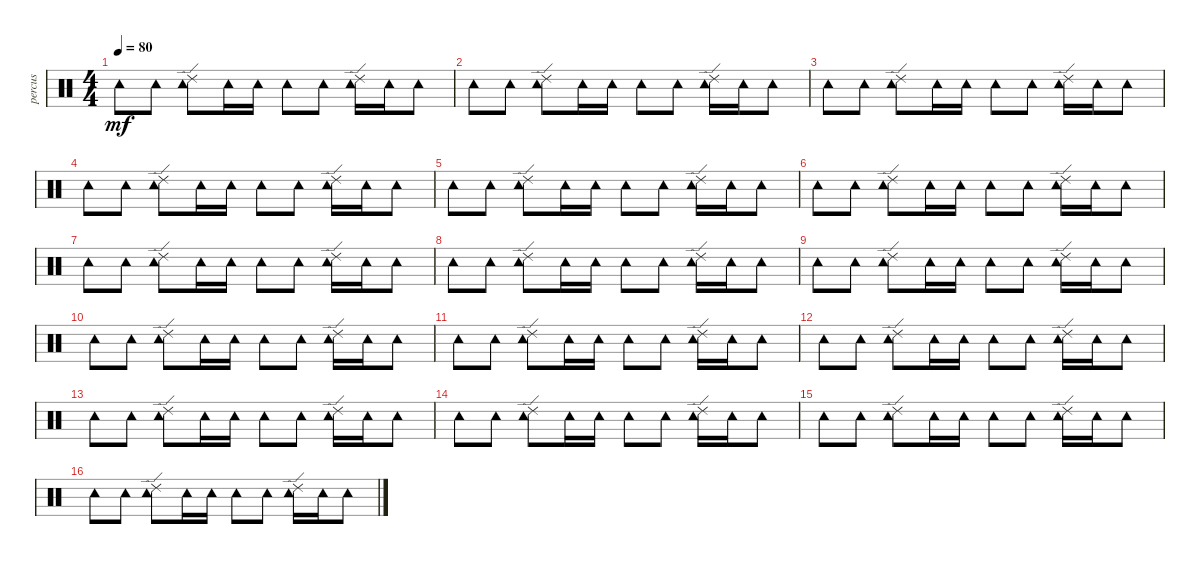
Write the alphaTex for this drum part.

\track ("percus" "percus") {instrument percussion}
\staff {score}
\articulation defaults
\ts (4 4)
\tempo 80
\clef neutral
\ks c "Tambourine (hit)".8{dy mf} "Tambourine (hit)".8
("Tambourine (hit)" "Ride (edge) 2").8 "Tambourine (hit)".16 "Tambourine (hit)".16 "Tambourine (hit)".8 "Tambourine (hit)".8 ("Tambourine (hit)" "Ride (edge) 2").16 "Tambourine (hit)".16 "Tambourine (hit)".8 |
"Tambourine (hit)".8 "Tambourine (hit)".8 ("Tambourine (hit)" "Ride (edge) 2").8 "Tambourine (hit)".16 "Tambourine (hit)".16 "Tambourine (hit)".8 "Tambourine (hit)".8 ("Tambourine (hit)" "Ride (edge) 2").16 "Tambourine (hit)".16 "Tambourine (hit)".8 |
"Tambourine (hit)".8 "Tambourine (hit)".8 ("Tambourine (hit)" "Ride (edge) 2").8 "Tambourine (hit)".16 "Tambourine (hit)".16 "Tambourine (hit)".8 "Tambourine (hit)".8 ("Tambourine (hit)" "Ride (edge) 2").16 "Tambourine (hit)".16 "Tambourine (hit)".8 |
"Tambourine (hit)".8 "Tambourine (hit)".8 ("Tambourine (hit)" "Ride (edge) 2").8 "Tambourine (hit)".16 "Tambourine (hit)".16 "Tambourine (hit)".8 "Tambourine (hit)".8 ("Tambourine (hit)" "Ride (edge) 2").16 "Tambourine (hit)".16 "Tambourine (hit)".8 |
"Tambourine (hit)".8 "Tambourine (hit)".8 ("Tambourine (hit)" "Ride (edge) 2").8 "Tambourine (hit)".16 "Tambourine (hit)".16 "Tambourine (hit)".8 "Tambourine (hit)".8 ("Tambourine (hit)" "Ride (edge) 2").16 "Tambourine (hit)".16 "Tambourine (hit)".8 |
"Tambourine (hit)".8 "Tambourine (hit)".8 ("Tambourine (hit)" "Ride (edge) 2").8 "Tambourine (hit)".16 "Tambourine (hit)".16 "Tambourine (hit)".8 "Tambourine (hit)".8 ("Tambourine (hit)" "Ride (edge) 2").16 "Tambourine (hit)".16 "Tambourine (hit)".8 |
"Tambourine (hit)".8 "Tambourine (hit)".8 ("Tambourine (hit)" "Ride (edge) 2").8 "Tambourine (hit)".16 "Tambourine (hit)".16 "Tambourine (hit)".8 "Tambourine (hit)".8 ("Tambourine (hit)" "Ride (edge) 2").16 "Tambourine (hit)".16 "Tambourine (hit)".8 |
"Tambourine (hit)".8 "Tambourine (hit)".8 ("Tambourine (hit)" "Ride (edge) 2").8 "Tambourine (hit)".16 "Tambourine (hit)".16 "Tambourine (hit)".8 "Tambourine (hit)".8 ("Tambourine (hit)" "Ride (edge) 2").16 "Tambourine (hit)".16 "Tambourine (hit)".8 |
"Tambourine (hit)".8 "Tambourine (hit)".8 ("Tambourine (hit)" "Ride (edge) 2").8 "Tambourine (hit)".16 "Tambourine (hit)".16 "Tambourine (hit)".8 "Tambourine (hit)".8 ("Tambourine (hit)" "Ride (edge) 2").16 "Tambourine (hit)".16 "Tambourine (hit)".8 |
"Tambourine (hit)".8 "Tambourine (hit)".8 ("Tambourine (hit)" "Ride (edge) 2").8 "Tambourine (hit)".16 "Tambourine (hit)".16 "Tambourine (hit)".8 "Tambourine (hit)".8 ("Tambourine (hit)" "Ride (edge) 2").16 "Tambourine (hit)".16 "Tambourine (hit)".8 |
"Tambourine (hit)".8 "Tambourine (hit)".8 ("Tambourine (hit)" "Ride (edge) 2").8 "Tambourine (hit)".16 "Tambourine (hit)".16 "Tambourine (hit)".8 "Tambourine (hit)".8 ("Tambourine (hit)" "Ride (edge) 2").16 "Tambourine (hit)".16 "Tambourine (hit)".8 |
"Tambourine (hit)".8 "Tambourine (hit)".8 ("Tambourine (hit)" "Ride (edge) 2").8 "Tambourine (hit)".16 "Tambourine (hit)".16 "Tambourine (hit)".8 "Tambourine (hit)".8 ("Tambourine (hit)" "Ride (edge) 2").16 "Tambourine (hit)".16 "Tambourine (hit)".8 |
"Tambourine (hit)".8 "Tambourine (hit)".8 ("Tambourine (hit)" "Ride (edge) 2").8 "Tambourine (hit)".16 "Tambourine (hit)".16 "Tambourine (hit)".8 "Tambourine (hit)".8 ("Tambourine (hit)" "Ride (edge) 2").16 "Tambourine (hit)".16 "Tambourine (hit)".8 |
"Tambourine (hit)".8 "Tambourine (hit)".8 ("Tambourine (hit)" "Ride (edge) 2").8 "Tambourine (hit)".16 "Tambourine (hit)".16 "Tambourine (hit)".8 "Tambourine (hit)".8 ("Tambourine (hit)" "Ride (edge) 2").16 "Tambourine (hit)".16 "Tambourine (hit)".8 |
"Tambourine (hit)".8 "Tambourine (hit)".8 ("Tambourine (hit)" "Ride (edge) 2").8 "Tambourine (hit)".16 "Tambourine (hit)".16 "Tambourine (hit)".8 "Tambourine (hit)".8 ("Tambourine (hit)" "Ride (edge) 2").16 "Tambourine (hit)".16 "Tambourine (hit)".8 |
"Tambourine (hit)".8 "Tambourine (hit)".8 ("Tambourine (hit)" "Ride (edge) 2").8 "Tambourine (hit)".16 "Tambourine (hit)".16 "Tambourine (hit)".8 "Tambourine (hit)".8 ("Tambourine (hit)" "Ride (edge) 2").16 "Tambourine (hit)".16 "Tambourine (hit)".8
